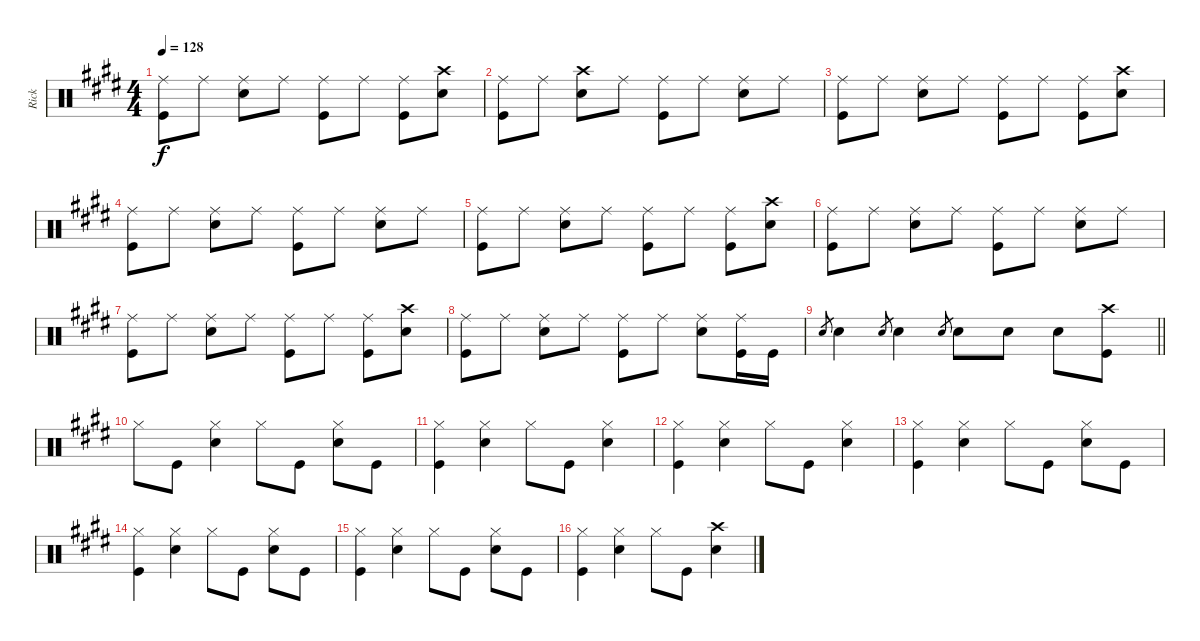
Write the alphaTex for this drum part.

\track ("Rick" "Rick") {instrument percussion}
\staff {score}
\articulation defaults
\ts (4 4)
\tempo 128
\clef neutral
\ks c#minor
("Ride (middle)" "Kick (hit)").8{dy f} "Ride (middle)".8 ("Ride (middle)" "Snare (hit) 2").8 "Ride (middle)".8 ("Ride (middle)" "Kick (hit)").8 "Ride (middle)".8 ("Ride (middle)" "Kick (hit)").8 ("Crash high (hit)" "Snare (hit) 2").8 |
("Ride (middle)" "Kick (hit)").8 "Ride (middle)".8 ("Crash high (hit)" "Snare (hit) 2").8 "Ride (middle)".8 ("Ride (middle)" "Kick (hit)").8 "Ride (middle)".8 ("Ride (middle)" "Snare (hit) 2").8 "Ride (middle)".8 |
("Ride (middle)" "Kick (hit)").8 "Ride (middle)".8 ("Ride (middle)" "Snare (hit) 2").8 "Ride (middle)".8 ("Ride (middle)" "Kick (hit)").8 "Ride (middle)".8 ("Ride (middle)" "Kick (hit)").8 ("Crash high (hit)" "Snare (hit) 2").8 |
("Ride (middle)" "Kick (hit)").8 "Ride (middle)".8 ("Ride (middle)" "Snare (hit) 2").8 "Ride (middle)".8 ("Ride (middle)" "Kick (hit)").8 "Ride (middle)".8 ("Ride (middle)" "Snare (hit) 2").8 "Ride (middle)".8 |
("Ride (middle)" "Kick (hit)").8 "Ride (middle)".8 ("Ride (middle)" "Snare (hit) 2").8 "Ride (middle)".8 ("Ride (middle)" "Kick (hit)").8 "Ride (middle)".8 ("Ride (middle)" "Kick (hit)").8 ("Crash high (hit)" "Snare (hit) 2").8 |
("Ride (middle)" "Kick (hit)").8 "Ride (middle)".8 ("Ride (middle)" "Snare (hit) 2").8 "Ride (middle)".8 ("Ride (middle)" "Kick (hit)").8 "Ride (middle)".8 ("Ride (middle)" "Snare (hit) 2").8 "Ride (middle)".8 |
("Ride (middle)" "Kick (hit)").8 "Ride (middle)".8 ("Ride (middle)" "Snare (hit) 2").8 "Ride (middle)".8 ("Ride (middle)" "Kick (hit)").8 "Ride (middle)".8 ("Ride (middle)" "Kick (hit)").8 ("Crash high (hit)" "Snare (hit) 2").8 |
("Ride (middle)" "Kick (hit)").8 "Ride (middle)".8 ("Ride (middle)" "Snare (hit) 2").8 "Ride (middle)".8 ("Ride (middle)" "Kick (hit)").8 "Ride (middle)".8 ("Ride (middle)" "Snare (hit) 2").8 ("Ride (middle)" "Kick (hit)").16 "Kick (hit)".16 |
\barLineRight lightlight "Snare (hit) 2".8{gr} "Snare (hit) 2".4 "Snare (hit) 2".8{gr} "Snare (hit) 2".4 "Snare (hit) 2".8{gr} "Snare (hit) 2".8 "Snare (hit) 2".8 "Snare (hit) 2".8
("Crash high (hit)" "Kick (hit)").8 |
"Hi-Hat (closed)".8 "Kick (hit)".8 ("Hi-Hat (closed)" "Snare (hit) 2").4 "Hi-Hat (closed)".8 "Kick (hit)".8 ("Hi-Hat (closed)" "Snare (hit) 2").8 "Kick (hit)".8 |
("Hi-Hat (closed)" "Kick (hit)").4 ("Hi-Hat (closed)" "Snare (hit) 2").4 "Hi-Hat (closed)".8 "Kick (hit)".8 ("Hi-Hat (closed)" "Snare (hit) 2").4 |
("Hi-Hat (closed)" "Kick (hit)").4 ("Hi-Hat (closed)" "Snare (hit) 2").4 "Hi-Hat (closed)".8 "Kick (hit)".8 ("Hi-Hat (closed)" "Snare (hit) 2").4 |
("Hi-Hat (closed)" "Kick (hit)").4 ("Hi-Hat (closed)" "Snare (hit) 2").4 "Hi-Hat (closed)".8 "Kick (hit)".8 ("Hi-Hat (closed)" "Snare (hit) 2").8 "Kick (hit)".8 |
("Hi-Hat (closed)" "Kick (hit)").4 ("Hi-Hat (closed)" "Snare (hit) 2").4 "Hi-Hat (closed)".8 "Kick (hit)".8 ("Hi-Hat (closed)" "Snare (hit) 2").8 "Kick (hit)".8 |
("Hi-Hat (closed)" "Kick (hit)").4 ("Hi-Hat (closed)" "Snare (hit) 2").4 "Hi-Hat (closed)".8 "Kick (hit)".8 ("Hi-Hat (closed)" "Snare (hit) 2").8 "Kick (hit)".8 |
("Hi-Hat (closed)" "Kick (hit)").4 ("Hi-Hat (closed)" "Snare (hit) 2").4 "Hi-Hat (closed)".8 "Kick (hit)".8 ("Crash high (hit)" "Snare (hit) 2").4
